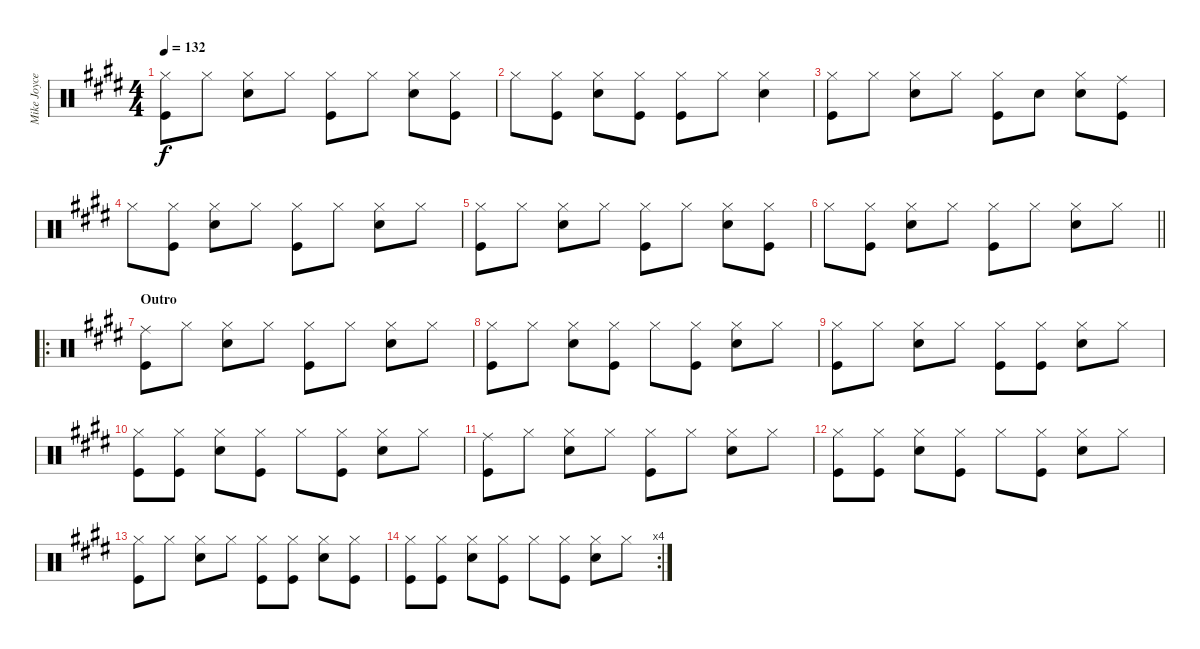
\track ("Mike Joyce's drums" "Mike Joyce") {instrument percussion}
\staff {score}
\articulation defaults
\ts (4 4)
\tempo 132
\clef neutral
\ks e
("Kick (hit)" "Hi-Hat (closed)").8{dy f} "Hi-Hat (closed)".8 ("Hi-Hat (closed)" "Snare (hit) 2").8 "Hi-Hat (closed)".8 ("Hi-Hat (closed)" "Kick (hit)").8 "Hi-Hat (closed)".8 ("Hi-Hat (closed)" "Snare (hit) 2").8 ("Kick (hit)" "Hi-Hat (closed)").8 |
"Hi-Hat (closed)".8 ("Hi-Hat (closed)" "Kick (hit)").8 ("Snare (hit) 2" "Hi-Hat (closed)").8 ("Kick (hit)" "Hi-Hat (closed)").8 ("Hi-Hat (closed)" "Kick (hit)").8 "Hi-Hat (closed)".8 ("Hi-Hat (closed)" "Snare (hit) 2").4 |
("Kick (hit)" "Hi-Hat (closed)").8 "Hi-Hat (closed)".8 ("Hi-Hat (closed)" "Snare (hit) 2").8 "Hi-Hat (closed)".8 ("Hi-Hat (closed)" "Kick (hit)").8 "Snare (hit) 2".8 ("Snare (hit) 2" "Hi-Hat (closed)").8 ("Kick (hit)" "Ride (middle)").8 |
"Hi-Hat (closed)".8 ("Hi-Hat (closed)" "Kick (hit)").8 ("Snare (hit) 2" "Hi-Hat (closed)").8 "Hi-Hat (closed)".8 ("Hi-Hat (closed)" "Kick (hit)").8 "Hi-Hat (closed)".8 ("Hi-Hat (closed)" "Snare (hit) 2").8 "Hi-Hat (closed)".8 |
("Hi-Hat (closed)" "Kick (hit)").8 "Hi-Hat (closed)".8 ("Hi-Hat (closed)" "Snare (hit) 2").8 "Hi-Hat (closed)".8 ("Kick (hit)" "Hi-Hat (closed)").8 "Hi-Hat (closed)".8 ("Snare (hit) 2" "Hi-Hat (closed)").8 ("Hi-Hat (closed)" "Kick (hit)").8 |
\barLineRight lightlight "Hi-Hat (closed)".8
("Kick (hit)" "Hi-Hat (closed)").8 ("Snare (hit) 2" "Hi-Hat (closed)").8 "Hi-Hat (closed)".8 ("Hi-Hat (closed)" "Kick (hit)").8 "Hi-Hat (closed)".8 ("Snare (hit) 2" "Hi-Hat (closed)").8 "Hi-Hat (closed)".8 |
\ro
\section ("" "Outro")
("Kick (hit)" "Ride (middle)").8 "Hi-Hat (closed)".8 ("Snare (hit) 2" "Hi-Hat (closed)").8 "Hi-Hat (closed)".8 ("Kick (hit)" "Hi-Hat (closed)").8 "Hi-Hat (closed)".8 ("Snare (hit) 2" "Hi-Hat (closed)").8 "Hi-Hat (closed)".8 |
("Kick (hit)" "Hi-Hat (closed)").8 "Hi-Hat (closed)".8 ("Hi-Hat (closed)" "Snare (hit) 2").8 ("Kick (hit)" "Hi-Hat (closed)").8 "Hi-Hat (closed)".8 ("Kick (hit)" "Hi-Hat (closed)").8 ("Hi-Hat (closed)" "Snare (hit) 2").8 "Hi-Hat (closed)".8 |
("Kick (hit)" "Hi-Hat (closed)").8 "Hi-Hat (closed)".8 ("Snare (hit) 2" "Hi-Hat (closed)").8 "Hi-Hat (closed)".8 ("Kick (hit)" "Hi-Hat (closed)").8 ("Kick (hit)" "Hi-Hat (closed)").8 ("Hi-Hat (closed)" "Snare (hit) 2").8 "Hi-Hat (closed)".8 |
("Kick (hit)" "Hi-Hat (closed)").8 ("Kick (hit)" "Hi-Hat (closed)").8 ("Hi-Hat (closed)" "Snare (hit) 2").8 ("Kick (hit)" "Hi-Hat (closed)").8 "Hi-Hat (closed)".8 ("Hi-Hat (closed)" "Kick (hit)").8 ("Snare (hit) 2" "Hi-Hat (closed)").8 "Hi-Hat (closed)".8 |
("Kick (hit)" "Ride (middle)").8 "Hi-Hat (closed)".8 ("Hi-Hat (closed)" "Snare (hit) 2").8 "Hi-Hat (closed)".8 ("Kick (hit)" "Hi-Hat (closed)").8 "Hi-Hat (closed)".8 ("Snare (hit) 2" "Hi-Hat (closed)").8 "Hi-Hat (closed)".8 |
("Kick (hit)" "Hi-Hat (closed)").8 ("Kick (hit)" "Hi-Hat (closed)").8 ("Hi-Hat (closed)" "Snare (hit) 2").8 ("Kick (hit)" "Hi-Hat (closed)").8 "Hi-Hat (closed)".8 ("Hi-Hat (closed)" "Kick (hit)").8 ("Snare (hit) 2" "Hi-Hat (closed)").8 "Hi-Hat (closed)".8 |
("Kick (hit)" "Hi-Hat (closed)").8 "Hi-Hat (closed)".8 ("Hi-Hat (closed)" "Snare (hit) 2").8 "Hi-Hat (closed)".8 ("Kick (hit)" "Hi-Hat (closed)").8 ("Kick (hit)" "Hi-Hat (closed)").8 ("Snare (hit) 2" "Hi-Hat (closed)").8 ("Kick (hit)" "Hi-Hat (closed)").8 |
\rc 4
("Kick (hit)" "Hi-Hat (closed)").8 ("Kick (hit)" "Hi-Hat (closed)").8 ("Hi-Hat (closed)" "Snare (hit) 2").8 ("Kick (hit)" "Hi-Hat (closed)").8 "Hi-Hat (closed)".8 ("Kick (hit)" "Hi-Hat (closed)").8 ("Snare (hit) 2" "Hi-Hat (closed)").8 "Hi-Hat (closed)".8
